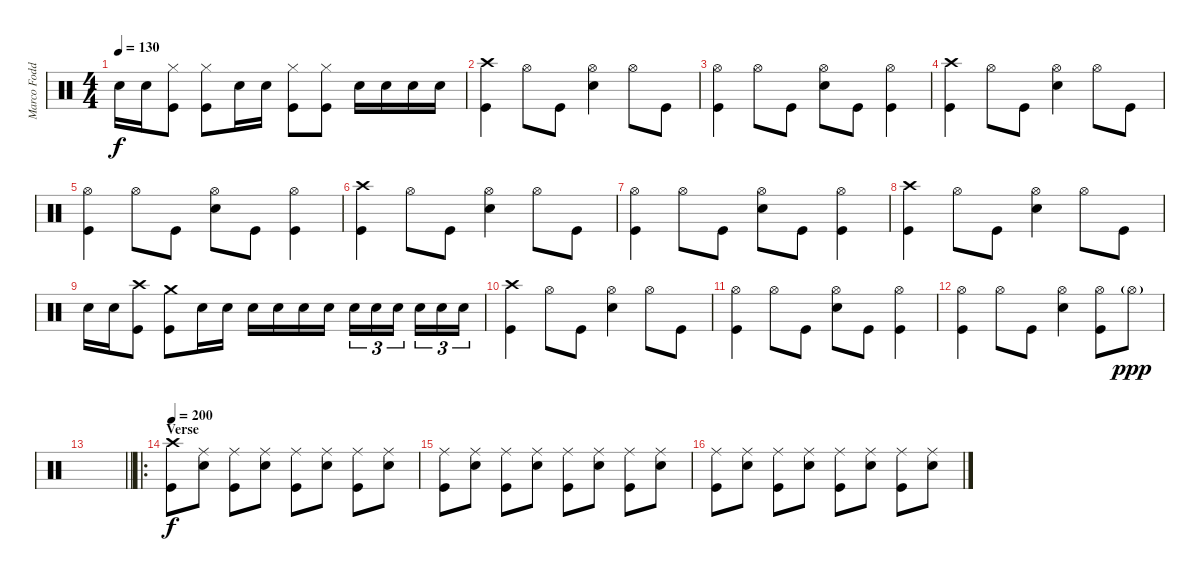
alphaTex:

\track ("Marco Foddis" "Marco Fodd") {instrument percussion}
\staff {score}
\articulation defaults
\ts (4 4)
\tempo 130
\clef neutral
\ks c "Snare (hit) 2".16{dy f} "Snare (hit) 2".16
("Hi-Hat (closed)" "Kick (hit)").8 ("Hi-Hat (closed)" "Kick (hit)").8 "Snare (hit) 2".16 "Snare (hit) 2".16 ("Hi-Hat (closed)" "Kick (hit)").8 ("Hi-Hat (closed)" "Kick (hit)").8 "Snare (hit) 2".16 "Snare (hit) 2".16 "Snare (hit) 2".16 "Snare (hit) 2".16 |
("Crash high (hit)" "Kick (hit)").4 "Hi-Hat (open)".8 "Kick (hit)".8 ("Hi-Hat (open)" "Snare (hit) 2").4 "Hi-Hat (open)".8 "Kick (hit)".8 |
("Hi-Hat (open)" "Kick (hit)").4 "Hi-Hat (open)".8 "Kick (hit)".8 ("Hi-Hat (open)" "Snare (hit) 2").8 "Kick (hit)".8 ("Hi-Hat (open)" "Kick (hit)").4 |
("Crash high (hit)" "Kick (hit)").4 "Hi-Hat (open)".8 "Kick (hit)".8 ("Hi-Hat (open)" "Snare (hit) 2").4 "Hi-Hat (open)".8 "Kick (hit)".8 |
("Hi-Hat (open)" "Kick (hit)").4 "Hi-Hat (open)".8 "Kick (hit)".8 ("Hi-Hat (open)" "Snare (hit) 2").8 "Kick (hit)".8 ("Hi-Hat (open)" "Kick (hit)").4 |
("Crash high (hit)" "Kick (hit)").4 "Hi-Hat (open)".8 "Kick (hit)".8 ("Hi-Hat (open)" "Snare (hit) 2").4 "Hi-Hat (open)".8 "Kick (hit)".8 |
("Hi-Hat (open)" "Kick (hit)").4 "Hi-Hat (open)".8 "Kick (hit)".8 ("Hi-Hat (open)" "Snare (hit) 2").8 "Kick (hit)".8 ("Hi-Hat (open)" "Kick (hit)").4 |
("Crash high (hit)" "Kick (hit)").4 "Hi-Hat (open)".8 "Kick (hit)".8 ("Hi-Hat (open)" "Snare (hit) 2").4 "Hi-Hat (open)".8 "Kick (hit)".8 |
"Snare (hit) 2".16 "Snare (hit) 2".16 ("Crash high (hit)" "Kick (hit)").8 ("Crash medium (hit)" "Kick (hit)").8 "Snare (hit) 2".16 "Snare (hit) 2".16 "Snare (hit) 2".16 "Snare (hit) 2".16 "Snare (hit) 2".16 "Snare (hit) 2".16 "Snare (hit) 2".16{tu (3 2)} "Snare (hit) 2".16{tu (3 2)} "Snare (hit) 2".16{tu (3 2) beam splitsecondary} "Snare (hit) 2".16{tu (3 2)} "Snare (hit) 2".16{tu (3 2)} "Snare (hit) 2".16{tu (3 2)} |
("Crash high (hit)" "Kick (hit)").4 "Hi-Hat (open)".8 "Kick (hit)".8 ("Hi-Hat (open)" "Snare (hit) 2").4 "Hi-Hat (open)".8 "Kick (hit)".8 |
("Hi-Hat (open)" "Kick (hit)").4 "Hi-Hat (open)".8 "Kick (hit)".8 ("Hi-Hat (open)" "Snare (hit) 2").8 "Kick (hit)".8 ("Hi-Hat (open)" "Kick (hit)").4 |
("Hi-Hat (open)" "Kick (hit)").4 "Hi-Hat (open)".8 "Kick (hit)".8 ("Hi-Hat (open)" "Snare (hit) 2").4 ("Hi-Hat (open)" "Kick (hit)").8 "Hi-Hat (open)"{g}.8{dy ppp} |
\barLineRight lightlight
|
\ro
\section ("" "Verse")
\tempo 200
("Crash high (hit)" "Kick (hit)").8{dy f} ("Ride (middle)" "Snare (hit) 2").8 ("Ride (middle)" "Kick (hit)").8 ("Ride (middle)" "Snare (hit) 2").8 ("Ride (middle)" "Kick (hit)").8 ("Ride (middle)" "Snare (hit) 2").8 ("Ride (middle)" "Kick (hit)").8 ("Ride (middle)" "Snare (hit) 2").8 |
("Ride (middle)" "Kick (hit)").8 ("Ride (middle)" "Snare (hit) 2").8 ("Ride (middle)" "Kick (hit)").8 ("Ride (middle)" "Snare (hit) 2").8 ("Ride (middle)" "Kick (hit)").8 ("Ride (middle)" "Snare (hit) 2").8 ("Ride (middle)" "Kick (hit)").8 ("Ride (middle)" "Snare (hit) 2").8 |
("Ride (middle)" "Kick (hit)").8 ("Ride (middle)" "Snare (hit) 2").8 ("Ride (middle)" "Kick (hit)").8 ("Ride (middle)" "Snare (hit) 2").8 ("Ride (middle)" "Kick (hit)").8 ("Ride (middle)" "Snare (hit) 2").8 ("Ride (middle)" "Kick (hit)").8 ("Ride (middle)" "Snare (hit) 2").8
